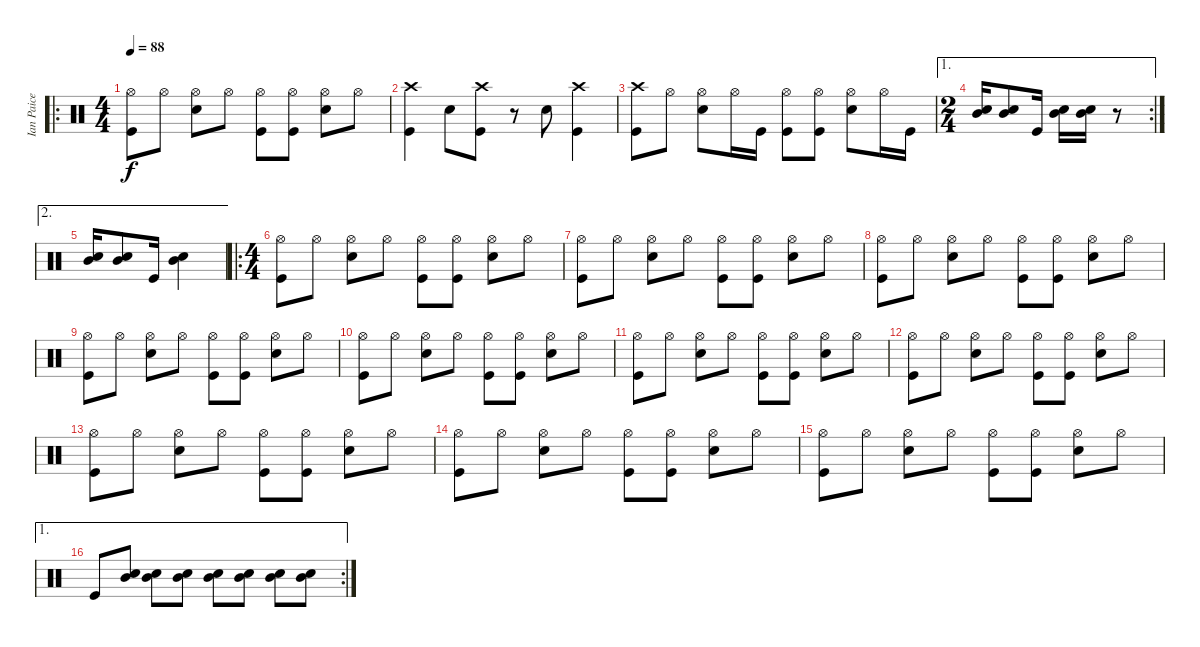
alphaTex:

\track ("Ian Paice" "Ian Paice") {instrument percussion}
\staff {score}
\articulation defaults
\ro
\ts (4 4)
\tempo 88
\clef neutral
\ks c
("Hi-Hat (open)" "Kick (hit)").8{dy f} "Hi-Hat (open)".8 ("Hi-Hat (open)" "Snare (hit) 2").8 "Hi-Hat (open)".8 ("Hi-Hat (open)" "Kick (hit)").8 ("Hi-Hat (open)" "Kick (hit)").8 ("Hi-Hat (open)" "Snare (hit) 2").8 "Hi-Hat (open)".8 |
("Crash high (hit)" "Kick (hit)").4 "Snare (hit) 2".8 ("Crash high (hit)" "Kick (hit)").8 r.8 "Snare (hit) 2".8 ("Crash high (hit)" "Kick (hit)").4 |
("Crash high (hit)" "Kick (hit)").8 "Hi-Hat (open)".8 ("Hi-Hat (open)" "Snare (hit) 2").8 "Hi-Hat (open)".16 "Kick (hit)".16 ("Hi-Hat (open)" "Kick (hit)").8 ("Hi-Hat (open)" "Kick (hit)").8 ("Hi-Hat (open)" "Snare (hit) 2").8 "Hi-Hat (open)".16 "Kick (hit)".16 |
\ae 1
\rc 2
\ts (2 4)
("Snare (hit) 2" "Mid Tom (hit)").16 ("Snare (hit) 2" "Mid Tom (hit)").8 "Kick (hit)".16 ("Snare (hit) 2" "Mid Tom (hit)").16 ("Snare (hit) 2" "Mid Tom (hit)").16 r.8 |
\ae 2
("Mid Tom (hit)" "Snare (hit) 2").16 ("Mid Tom (hit)" "Snare (hit) 2").8 "Kick (hit)".16 ("Mid Tom (hit)" "Snare (hit) 2").4 |
\ro
\ts (4 4)
("Hi-Hat (open)" "Kick (hit)").8 "Hi-Hat (open)".8 ("Hi-Hat (open)" "Snare (hit) 2").8 "Hi-Hat (open)".8 ("Hi-Hat (open)" "Kick (hit)").8 ("Hi-Hat (open)" "Kick (hit)").8 ("Hi-Hat (open)" "Snare (hit) 2").8 "Hi-Hat (open)".8 |
("Hi-Hat (open)" "Kick (hit)").8 "Hi-Hat (open)".8 ("Hi-Hat (open)" "Snare (hit) 2").8 "Hi-Hat (open)".8 ("Hi-Hat (open)" "Kick (hit)").8 ("Hi-Hat (open)" "Kick (hit)").8 ("Hi-Hat (open)" "Snare (hit) 2").8 "Hi-Hat (open)".8 |
("Hi-Hat (open)" "Kick (hit)").8 "Hi-Hat (open)".8 ("Hi-Hat (open)" "Snare (hit) 2").8 "Hi-Hat (open)".8 ("Hi-Hat (open)" "Kick (hit)").8 ("Hi-Hat (open)" "Kick (hit)").8 ("Hi-Hat (open)" "Snare (hit) 2").8 "Hi-Hat (open)".8 |
("Hi-Hat (open)" "Kick (hit)").8 "Hi-Hat (open)".8 ("Hi-Hat (open)" "Snare (hit) 2").8 "Hi-Hat (open)".8 ("Hi-Hat (open)" "Kick (hit)").8 ("Hi-Hat (open)" "Kick (hit)").8 ("Hi-Hat (open)" "Snare (hit) 2").8 "Hi-Hat (open)".8 |
("Hi-Hat (open)" "Kick (hit)").8 "Hi-Hat (open)".8 ("Hi-Hat (open)" "Snare (hit) 2").8 "Hi-Hat (open)".8 ("Hi-Hat (open)" "Kick (hit)").8 ("Hi-Hat (open)" "Kick (hit)").8 ("Hi-Hat (open)" "Snare (hit) 2").8 "Hi-Hat (open)".8 |
("Hi-Hat (open)" "Kick (hit)").8 "Hi-Hat (open)".8 ("Hi-Hat (open)" "Snare (hit) 2").8 "Hi-Hat (open)".8 ("Hi-Hat (open)" "Kick (hit)").8 ("Hi-Hat (open)" "Kick (hit)").8 ("Hi-Hat (open)" "Snare (hit) 2").8 "Hi-Hat (open)".8 |
("Hi-Hat (open)" "Kick (hit)").8 "Hi-Hat (open)".8 ("Hi-Hat (open)" "Snare (hit) 2").8 "Hi-Hat (open)".8 ("Hi-Hat (open)" "Kick (hit)").8 ("Hi-Hat (open)" "Kick (hit)").8 ("Hi-Hat (open)" "Snare (hit) 2").8 "Hi-Hat (open)".8 |
("Hi-Hat (open)" "Kick (hit)").8 "Hi-Hat (open)".8 ("Hi-Hat (open)" "Snare (hit) 2").8 "Hi-Hat (open)".8 ("Hi-Hat (open)" "Kick (hit)").8 ("Hi-Hat (open)" "Kick (hit)").8 ("Hi-Hat (open)" "Snare (hit) 2").8 "Hi-Hat (open)".8 |
("Hi-Hat (open)" "Kick (hit)").8 "Hi-Hat (open)".8 ("Hi-Hat (open)" "Snare (hit) 2").8 "Hi-Hat (open)".8 ("Hi-Hat (open)" "Kick (hit)").8 ("Hi-Hat (open)" "Kick (hit)").8 ("Hi-Hat (open)" "Snare (hit) 2").8 "Hi-Hat (open)".8 |
("Hi-Hat (open)" "Kick (hit)").8 "Hi-Hat (open)".8 ("Hi-Hat (open)" "Snare (hit) 2").8 "Hi-Hat (open)".8 ("Hi-Hat (open)" "Kick (hit)").8 ("Hi-Hat (open)" "Kick (hit)").8 ("Hi-Hat (open)" "Snare (hit) 2").8 "Hi-Hat (open)".8 |
\ae 1
\rc 2 "Kick (hit)".8
("Snare (hit) 2" "Mid Tom (hit)").8 ("Snare (hit) 2" "Mid Tom (hit)").8 ("Snare (hit) 2" "Mid Tom (hit)").8 ("Snare (hit) 2" "Mid Tom (hit)").8 ("Snare (hit) 2" "Mid Tom (hit)").8 ("Snare (hit) 2" "Mid Tom (hit)").8 ("Snare (hit) 2" "Mid Tom (hit)").8
